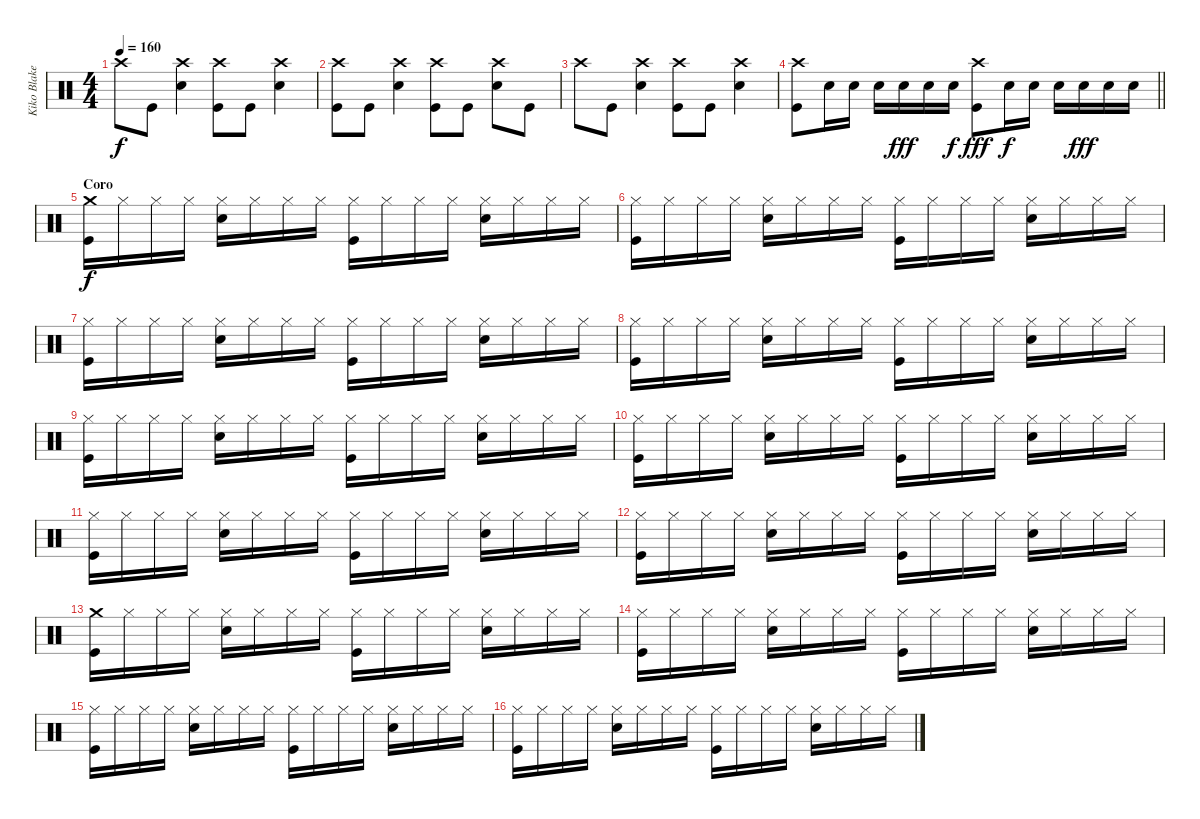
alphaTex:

\track ("Kiko Blake" "Kiko Blake") {instrument percussion}
\staff {score}
\articulation defaults
\ts (4 4)
\tempo 160
\clef neutral
\ks c "Crash high (hit)"{t}.8{dy f} "Kick (hit)".8
("Crash high (hit)" "Snare (hit) 2").4 ("Crash high (hit)" "Kick (hit)").8 "Kick (hit)".8 ("Crash high (hit)" "Snare (hit) 2").4 |
("Crash high (hit)" "Kick (hit)").8 "Kick (hit)".8 ("Crash high (hit)" "Snare (hit) 2").4 ("Crash high (hit)" "Kick (hit)").8 "Kick (hit)".8 ("Crash high (hit)" "Snare (hit) 2").8 "Kick (hit)".8 |
"Crash high (hit)".8 "Kick (hit)".8 ("Crash high (hit)" "Snare (hit) 2").4 ("Crash high (hit)" "Kick (hit)").8 "Kick (hit)".8 ("Crash high (hit)" "Snare (hit) 2").4 |
\barLineRight lightlight
("Crash high (hit)" "Kick (hit)").8 "Snare (hit) 2".16 "Snare (hit) 2".16 "Snare (hit) 2".16 "Snare (hit) 2".16{dy fff} "Snare (hit) 2".16 "Snare (hit) 2".16{dy f} ("Crash high (hit)" "Kick (hit)").8{dy fff} "Snare (hit) 2".16{dy f} "Snare (hit) 2".16 "Snare (hit) 2".16 "Snare (hit) 2".16{dy fff} "Snare (hit) 2".16 "Snare (hit) 2".16 |
\section ("" "Coro")
("Crash medium (hit)" "Kick (hit)").16{dy f} "Hi-Hat (closed)".16 "Hi-Hat (closed)".16 "Hi-Hat (closed)".16 ("Hi-Hat (closed)" "Snare (hit) 2").16 "Hi-Hat (closed)".16 "Hi-Hat (closed)".16 "Hi-Hat (closed)".16 ("Hi-Hat (closed)" "Kick (hit)").16 "Hi-Hat (closed)".16 "Hi-Hat (closed)".16 "Hi-Hat (closed)".16 ("Hi-Hat (closed)" "Snare (hit) 2").16 "Hi-Hat (closed)".16 "Hi-Hat (closed)".16 "Hi-Hat (closed)".16 |
("Hi-Hat (closed)" "Kick (hit)").16 "Hi-Hat (closed)".16 "Hi-Hat (closed)".16 "Hi-Hat (closed)".16 ("Hi-Hat (closed)" "Snare (hit) 2").16 "Hi-Hat (closed)".16 "Hi-Hat (closed)".16 "Hi-Hat (closed)".16 ("Hi-Hat (closed)" "Kick (hit)").16 "Hi-Hat (closed)".16 "Hi-Hat (closed)".16 "Hi-Hat (closed)".16 ("Hi-Hat (closed)" "Snare (hit) 2").16 "Hi-Hat (closed)".16 "Hi-Hat (closed)".16 "Hi-Hat (closed)".16 |
("Hi-Hat (closed)" "Kick (hit)").16 "Hi-Hat (closed)".16 "Hi-Hat (closed)".16 "Hi-Hat (closed)".16 ("Hi-Hat (closed)" "Snare (hit) 2").16 "Hi-Hat (closed)".16 "Hi-Hat (closed)".16 "Hi-Hat (closed)".16 ("Hi-Hat (closed)" "Kick (hit)").16 "Hi-Hat (closed)".16 "Hi-Hat (closed)".16 "Hi-Hat (closed)".16 ("Hi-Hat (closed)" "Snare (hit) 2").16 "Hi-Hat (closed)".16 "Hi-Hat (closed)".16 "Hi-Hat (closed)".16 |
("Hi-Hat (closed)" "Kick (hit)").16 "Hi-Hat (closed)".16 "Hi-Hat (closed)".16 "Hi-Hat (closed)".16 ("Hi-Hat (closed)" "Snare (hit) 2").16 "Hi-Hat (closed)".16 "Hi-Hat (closed)".16 "Hi-Hat (closed)".16 ("Hi-Hat (closed)" "Kick (hit)").16 "Hi-Hat (closed)".16 "Hi-Hat (closed)".16 "Hi-Hat (closed)".16 ("Hi-Hat (closed)" "Snare (hit) 2").16 "Hi-Hat (closed)".16 "Hi-Hat (closed)".16 "Hi-Hat (closed)".16 |
("Hi-Hat (closed)" "Kick (hit)").16 "Hi-Hat (closed)".16 "Hi-Hat (closed)".16 "Hi-Hat (closed)".16 ("Hi-Hat (closed)" "Snare (hit) 2").16 "Hi-Hat (closed)".16 "Hi-Hat (closed)".16 "Hi-Hat (closed)".16 ("Hi-Hat (closed)" "Kick (hit)").16 "Hi-Hat (closed)".16 "Hi-Hat (closed)".16 "Hi-Hat (closed)".16 ("Hi-Hat (closed)" "Snare (hit) 2").16 "Hi-Hat (closed)".16 "Hi-Hat (closed)".16 "Hi-Hat (closed)".16 |
("Hi-Hat (closed)" "Kick (hit)").16 "Hi-Hat (closed)".16 "Hi-Hat (closed)".16 "Hi-Hat (closed)".16 ("Hi-Hat (closed)" "Snare (hit) 2").16 "Hi-Hat (closed)".16 "Hi-Hat (closed)".16 "Hi-Hat (closed)".16 ("Hi-Hat (closed)" "Kick (hit)").16 "Hi-Hat (closed)".16 "Hi-Hat (closed)".16 "Hi-Hat (closed)".16 ("Hi-Hat (closed)" "Snare (hit) 2").16 "Hi-Hat (closed)".16 "Hi-Hat (closed)".16 "Hi-Hat (closed)".16 |
("Hi-Hat (closed)" "Kick (hit)").16 "Hi-Hat (closed)".16 "Hi-Hat (closed)".16 "Hi-Hat (closed)".16 ("Hi-Hat (closed)" "Snare (hit) 2").16 "Hi-Hat (closed)".16 "Hi-Hat (closed)".16 "Hi-Hat (closed)".16 ("Hi-Hat (closed)" "Kick (hit)").16 "Hi-Hat (closed)".16 "Hi-Hat (closed)".16 "Hi-Hat (closed)".16 ("Hi-Hat (closed)" "Snare (hit) 2").16 "Hi-Hat (closed)".16 "Hi-Hat (closed)".16 "Hi-Hat (closed)".16 |
("Hi-Hat (closed)" "Kick (hit)").16 "Hi-Hat (closed)".16 "Hi-Hat (closed)".16 "Hi-Hat (closed)".16 ("Hi-Hat (closed)" "Snare (hit) 2").16 "Hi-Hat (closed)".16 "Hi-Hat (closed)".16 "Hi-Hat (closed)".16 ("Hi-Hat (closed)" "Kick (hit)").16 "Hi-Hat (closed)".16 "Hi-Hat (closed)".16 "Hi-Hat (closed)".16 ("Hi-Hat (closed)" "Snare (hit) 2").16 "Hi-Hat (closed)".16 "Hi-Hat (closed)".16 "Hi-Hat (closed)".16 |
("Crash medium (hit)" "Kick (hit)").16 "Hi-Hat (closed)".16 "Hi-Hat (closed)".16 "Hi-Hat (closed)".16 ("Hi-Hat (closed)" "Snare (hit) 2").16 "Hi-Hat (closed)".16 "Hi-Hat (closed)".16 "Hi-Hat (closed)".16 ("Hi-Hat (closed)" "Kick (hit)").16 "Hi-Hat (closed)".16 "Hi-Hat (closed)".16 "Hi-Hat (closed)".16 ("Hi-Hat (closed)" "Snare (hit) 2").16 "Hi-Hat (closed)".16 "Hi-Hat (closed)".16 "Hi-Hat (closed)".16 |
("Hi-Hat (closed)" "Kick (hit)").16 "Hi-Hat (closed)".16 "Hi-Hat (closed)".16 "Hi-Hat (closed)".16 ("Hi-Hat (closed)" "Snare (hit) 2").16 "Hi-Hat (closed)".16 "Hi-Hat (closed)".16 "Hi-Hat (closed)".16 ("Hi-Hat (closed)" "Kick (hit)").16 "Hi-Hat (closed)".16 "Hi-Hat (closed)".16 "Hi-Hat (closed)".16 ("Hi-Hat (closed)" "Snare (hit) 2").16 "Hi-Hat (closed)".16 "Hi-Hat (closed)".16 "Hi-Hat (closed)".16 |
("Hi-Hat (closed)" "Kick (hit)").16 "Hi-Hat (closed)".16 "Hi-Hat (closed)".16 "Hi-Hat (closed)".16 ("Hi-Hat (closed)" "Snare (hit) 2").16 "Hi-Hat (closed)".16 "Hi-Hat (closed)".16 "Hi-Hat (closed)".16 ("Hi-Hat (closed)" "Kick (hit)").16 "Hi-Hat (closed)".16 "Hi-Hat (closed)".16 "Hi-Hat (closed)".16 ("Hi-Hat (closed)" "Snare (hit) 2").16 "Hi-Hat (closed)".16 "Hi-Hat (closed)".16 "Hi-Hat (closed)".16 |
("Hi-Hat (closed)" "Kick (hit)").16 "Hi-Hat (closed)".16 "Hi-Hat (closed)".16 "Hi-Hat (closed)".16 ("Hi-Hat (closed)" "Snare (hit) 2").16 "Hi-Hat (closed)".16 "Hi-Hat (closed)".16 "Hi-Hat (closed)".16 ("Hi-Hat (closed)" "Kick (hit)").16 "Hi-Hat (closed)".16 "Hi-Hat (closed)".16 "Hi-Hat (closed)".16 ("Hi-Hat (closed)" "Snare (hit) 2").16 "Hi-Hat (closed)".16 "Hi-Hat (closed)".16 "Hi-Hat (closed)".16
